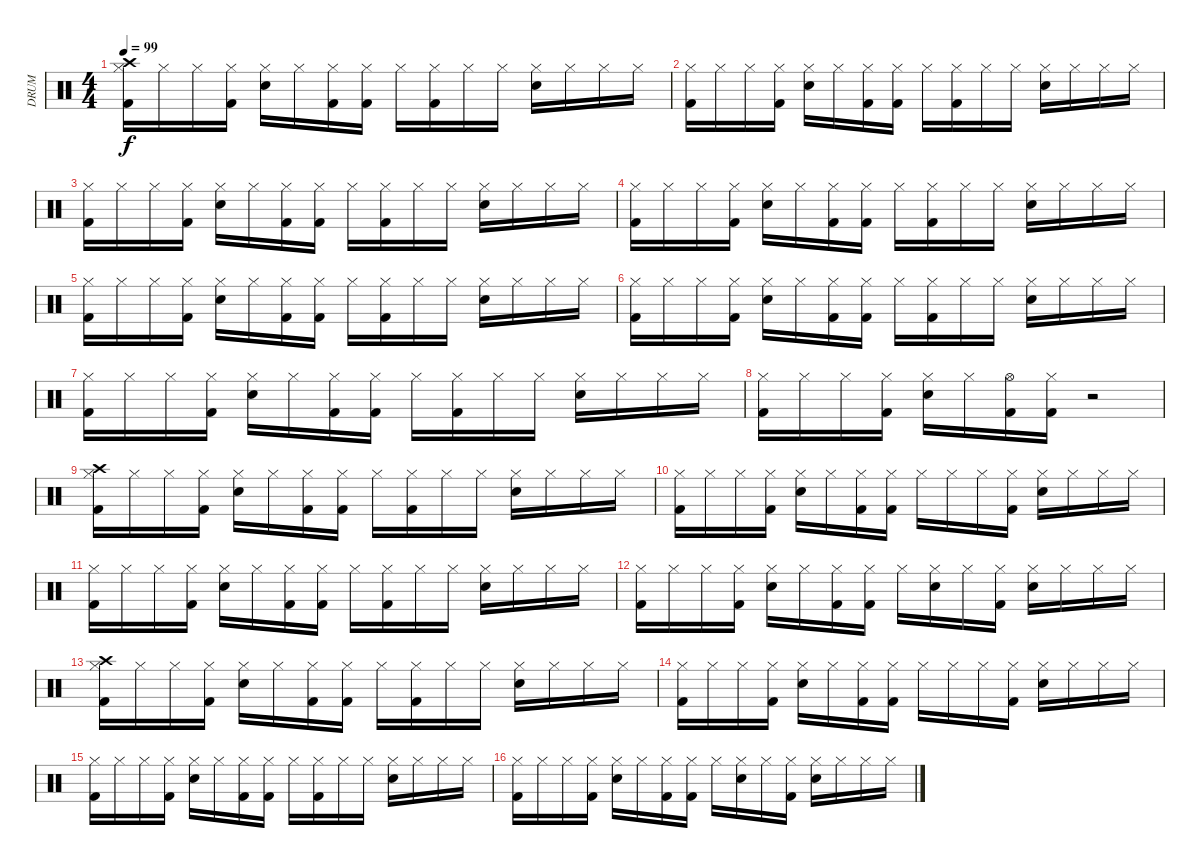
\track ("DRUM" "DRUM") {instrument percussion}
\staff {score}
\articulation defaults
\ts (4 4)
\tempo 99
\clef neutral
\ks c
("Crash high (hit)" "Hi-Hat (closed)" "Kick (hit) 2").16{dy f} "Hi-Hat (closed)".16 "Hi-Hat (closed)".16 ("Hi-Hat (closed)" "Kick (hit) 2").16 ("Hi-Hat (closed)" "Snare (hit) 2").16 "Hi-Hat (closed)".16 ("Hi-Hat (closed)" "Kick (hit) 2").16 ("Hi-Hat (closed)" "Kick (hit) 2").16 "Hi-Hat (closed)".16 ("Hi-Hat (closed)" "Kick (hit) 2").16 "Hi-Hat (closed)".16 "Hi-Hat (closed)".16 ("Hi-Hat (closed)" "Snare (hit) 2").16 "Hi-Hat (closed)".16 "Hi-Hat (closed)".16 "Hi-Hat (closed)".16 |
("Hi-Hat (closed)" "Kick (hit) 2").16 "Hi-Hat (closed)".16 "Hi-Hat (closed)".16 ("Hi-Hat (closed)" "Kick (hit) 2").16 ("Hi-Hat (closed)" "Snare (hit) 2").16 "Hi-Hat (closed)".16 ("Hi-Hat (closed)" "Kick (hit) 2").16 ("Hi-Hat (closed)" "Kick (hit) 2").16 "Hi-Hat (closed)".16 ("Hi-Hat (closed)" "Kick (hit) 2").16 "Hi-Hat (closed)".16 "Hi-Hat (closed)".16 ("Hi-Hat (closed)" "Snare (hit) 2").16 "Hi-Hat (closed)".16 "Hi-Hat (closed)".16 "Hi-Hat (closed)".16 |
("Hi-Hat (closed)" "Kick (hit) 2").16 "Hi-Hat (closed)".16 "Hi-Hat (closed)".16 ("Hi-Hat (closed)" "Kick (hit) 2").16 ("Hi-Hat (closed)" "Snare (hit) 2").16 "Hi-Hat (closed)".16 ("Hi-Hat (closed)" "Kick (hit) 2").16 ("Hi-Hat (closed)" "Kick (hit) 2").16 "Hi-Hat (closed)".16 ("Hi-Hat (closed)" "Kick (hit) 2").16 "Hi-Hat (closed)".16 "Hi-Hat (closed)".16 ("Hi-Hat (closed)" "Snare (hit) 2").16 "Hi-Hat (closed)".16 "Hi-Hat (closed)".16 "Hi-Hat (closed)".16 |
("Hi-Hat (closed)" "Kick (hit) 2").16 "Hi-Hat (closed)".16 "Hi-Hat (closed)".16 ("Hi-Hat (closed)" "Kick (hit) 2").16 ("Hi-Hat (closed)" "Snare (hit) 2").16 "Hi-Hat (closed)".16 ("Hi-Hat (closed)" "Kick (hit) 2").16 ("Hi-Hat (closed)" "Kick (hit) 2").16 "Hi-Hat (closed)".16 ("Hi-Hat (closed)" "Kick (hit) 2").16 "Hi-Hat (closed)".16 "Hi-Hat (closed)".16 ("Hi-Hat (closed)" "Snare (hit) 2").16 "Hi-Hat (closed)".16 "Hi-Hat (closed)".16 "Hi-Hat (closed)".16 |
("Hi-Hat (closed)" "Kick (hit) 2").16 "Hi-Hat (closed)".16 "Hi-Hat (closed)".16 ("Hi-Hat (closed)" "Kick (hit) 2").16 ("Hi-Hat (closed)" "Snare (hit) 2").16 "Hi-Hat (closed)".16 ("Hi-Hat (closed)" "Kick (hit) 2").16 ("Hi-Hat (closed)" "Kick (hit) 2").16 "Hi-Hat (closed)".16 ("Hi-Hat (closed)" "Kick (hit) 2").16 "Hi-Hat (closed)".16 "Hi-Hat (closed)".16 ("Hi-Hat (closed)" "Snare (hit) 2").16 "Hi-Hat (closed)".16 "Hi-Hat (closed)".16 "Hi-Hat (closed)".16 |
("Hi-Hat (closed)" "Kick (hit) 2").16 "Hi-Hat (closed)".16 "Hi-Hat (closed)".16 ("Hi-Hat (closed)" "Kick (hit) 2").16 ("Hi-Hat (closed)" "Snare (hit) 2").16 "Hi-Hat (closed)".16 ("Hi-Hat (closed)" "Kick (hit) 2").16 ("Hi-Hat (closed)" "Kick (hit) 2").16 "Hi-Hat (closed)".16 ("Hi-Hat (closed)" "Kick (hit) 2").16 "Hi-Hat (closed)".16 "Hi-Hat (closed)".16 ("Hi-Hat (closed)" "Snare (hit) 2").16 "Hi-Hat (closed)".16 "Hi-Hat (closed)".16 "Hi-Hat (closed)".16 |
("Hi-Hat (closed)" "Kick (hit) 2").16 "Hi-Hat (closed)".16 "Hi-Hat (closed)".16 ("Hi-Hat (closed)" "Kick (hit) 2").16 ("Hi-Hat (closed)" "Snare (hit) 2").16 "Hi-Hat (closed)".16 ("Hi-Hat (closed)" "Kick (hit) 2").16 ("Hi-Hat (closed)" "Kick (hit) 2").16 "Hi-Hat (closed)".16 ("Hi-Hat (closed)" "Kick (hit) 2").16 "Hi-Hat (closed)".16 "Hi-Hat (closed)".16 ("Hi-Hat (closed)" "Snare (hit) 2").16 "Hi-Hat (closed)".16 "Hi-Hat (closed)".16 "Hi-Hat (closed)".16 |
("Hi-Hat (closed)" "Kick (hit) 2").16 "Hi-Hat (closed)".16 "Hi-Hat (closed)".16 ("Hi-Hat (closed)" "Kick (hit) 2").16 ("Hi-Hat (closed)" "Snare (hit) 2").16 "Hi-Hat (closed)".16 ("Hi-Hat (open)" "Kick (hit) 2").16 ("Hi-Hat (closed)" "Kick (hit) 2").16 r.2 |
("Crash high (hit)" "Hi-Hat (closed)" "Kick (hit) 2").16 "Hi-Hat (closed)".16 "Hi-Hat (closed)".16 ("Hi-Hat (closed)" "Kick (hit) 2").16 ("Hi-Hat (closed)" "Snare (hit) 2").16 "Hi-Hat (closed)".16 ("Hi-Hat (closed)" "Kick (hit) 2").16 ("Hi-Hat (closed)" "Kick (hit) 2").16 "Hi-Hat (closed)".16 ("Hi-Hat (closed)" "Kick (hit) 2").16 "Hi-Hat (closed)".16 "Hi-Hat (closed)".16 ("Hi-Hat (closed)" "Snare (hit) 2").16 "Hi-Hat (closed)".16 "Hi-Hat (closed)".16 "Hi-Hat (closed)".16 |
("Hi-Hat (closed)" "Kick (hit) 2").16 "Hi-Hat (closed)".16 "Hi-Hat (closed)".16 ("Hi-Hat (closed)" "Kick (hit) 2").16 ("Hi-Hat (closed)" "Snare (hit) 2").16 "Hi-Hat (closed)".16 ("Hi-Hat (closed)" "Kick (hit) 2").16 ("Hi-Hat (closed)" "Kick (hit) 2").16 "Hi-Hat (closed)".16 "Hi-Hat (closed)".16 "Hi-Hat (closed)".16 ("Hi-Hat (closed)" "Kick (hit) 2").16 ("Hi-Hat (closed)" "Snare (hit) 2").16 "Hi-Hat (closed)".16 "Hi-Hat (closed)".16 "Hi-Hat (closed)".16 |
("Hi-Hat (closed)" "Kick (hit) 2").16 "Hi-Hat (closed)".16 "Hi-Hat (closed)".16 ("Hi-Hat (closed)" "Kick (hit) 2").16 ("Hi-Hat (closed)" "Snare (hit) 2").16 "Hi-Hat (closed)".16 ("Hi-Hat (closed)" "Kick (hit) 2").16 ("Hi-Hat (closed)" "Kick (hit) 2").16 "Hi-Hat (closed)".16 ("Hi-Hat (closed)" "Kick (hit) 2").16 "Hi-Hat (closed)".16 "Hi-Hat (closed)".16 ("Hi-Hat (closed)" "Snare (hit) 2").16 "Hi-Hat (closed)".16 "Hi-Hat (closed)".16 "Hi-Hat (closed)".16 |
("Hi-Hat (closed)" "Kick (hit) 2").16 "Hi-Hat (closed)".16 "Hi-Hat (closed)".16 ("Hi-Hat (closed)" "Kick (hit) 2").16 ("Hi-Hat (closed)" "Snare (hit) 2").16 "Hi-Hat (closed)".16 ("Hi-Hat (closed)" "Kick (hit) 2").16 ("Hi-Hat (closed)" "Kick (hit) 2").16 "Hi-Hat (closed)".16 ("Hi-Hat (closed)" "Snare (hit) 2").16 "Hi-Hat (closed)".16 ("Hi-Hat (closed)" "Kick (hit) 2").16 ("Hi-Hat (closed)" "Snare (hit) 2").16 "Hi-Hat (closed)".16 "Hi-Hat (closed)".16 "Hi-Hat (closed)".16 |
("Crash high (hit)" "Hi-Hat (closed)" "Kick (hit) 2").16 "Hi-Hat (closed)".16 "Hi-Hat (closed)".16 ("Hi-Hat (closed)" "Kick (hit) 2").16 ("Hi-Hat (closed)" "Snare (hit) 2").16 "Hi-Hat (closed)".16 ("Hi-Hat (closed)" "Kick (hit) 2").16 ("Hi-Hat (closed)" "Kick (hit) 2").16 "Hi-Hat (closed)".16 ("Hi-Hat (closed)" "Kick (hit) 2").16 "Hi-Hat (closed)".16 "Hi-Hat (closed)".16 ("Hi-Hat (closed)" "Snare (hit) 2").16 "Hi-Hat (closed)".16 "Hi-Hat (closed)".16 "Hi-Hat (closed)".16 |
("Hi-Hat (closed)" "Kick (hit) 2").16 "Hi-Hat (closed)".16 "Hi-Hat (closed)".16 ("Hi-Hat (closed)" "Kick (hit) 2").16 ("Hi-Hat (closed)" "Snare (hit) 2").16 "Hi-Hat (closed)".16 ("Hi-Hat (closed)" "Kick (hit) 2").16 ("Hi-Hat (closed)" "Kick (hit) 2").16 "Hi-Hat (closed)".16 "Hi-Hat (closed)".16 "Hi-Hat (closed)".16 ("Hi-Hat (closed)" "Kick (hit) 2").16 ("Hi-Hat (closed)" "Snare (hit) 2").16 "Hi-Hat (closed)".16 "Hi-Hat (closed)".16 "Hi-Hat (closed)".16 |
("Hi-Hat (closed)" "Kick (hit) 2").16 "Hi-Hat (closed)".16 "Hi-Hat (closed)".16 ("Hi-Hat (closed)" "Kick (hit) 2").16 ("Hi-Hat (closed)" "Snare (hit) 2").16 "Hi-Hat (closed)".16 ("Hi-Hat (closed)" "Kick (hit) 2").16 ("Hi-Hat (closed)" "Kick (hit) 2").16 "Hi-Hat (closed)".16 ("Hi-Hat (closed)" "Kick (hit) 2").16 "Hi-Hat (closed)".16 "Hi-Hat (closed)".16 ("Hi-Hat (closed)" "Snare (hit) 2").16 "Hi-Hat (closed)".16 "Hi-Hat (closed)".16 "Hi-Hat (closed)".16 |
("Hi-Hat (closed)" "Kick (hit) 2").16 "Hi-Hat (closed)".16 "Hi-Hat (closed)".16 ("Hi-Hat (closed)" "Kick (hit) 2").16 ("Hi-Hat (closed)" "Snare (hit) 2").16 "Hi-Hat (closed)".16 ("Hi-Hat (closed)" "Kick (hit) 2").16 ("Hi-Hat (closed)" "Kick (hit) 2").16 "Hi-Hat (closed)".16 ("Hi-Hat (closed)" "Snare (hit) 2").16 "Hi-Hat (closed)".16 ("Hi-Hat (closed)" "Kick (hit) 2").16 ("Hi-Hat (closed)" "Snare (hit) 2").16 "Hi-Hat (closed)".16 "Hi-Hat (closed)".16 "Hi-Hat (closed)".16
